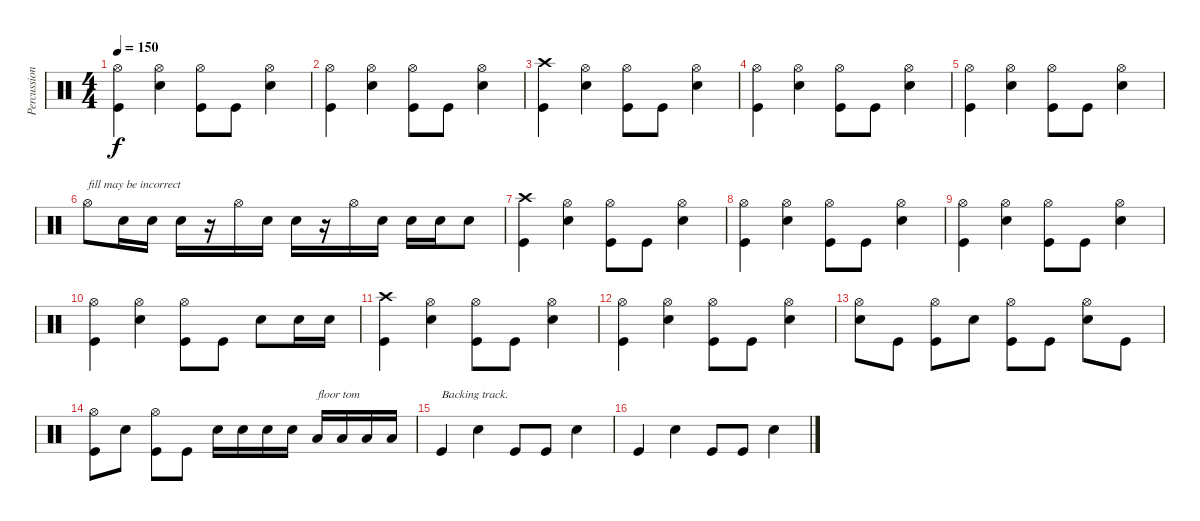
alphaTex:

\track ("Percussion" "Percussion") {instrument percussion}
\staff {score}
\articulation defaults
\ts (4 4)
\tempo 150
\clef neutral
\ks c
("Hi-Hat (open)" "Kick (hit)").4{dy f} ("Hi-Hat (open)" "Electric Snare (hit)").4 ("Hi-Hat (open)" "Kick (hit)").8 "Kick (hit)".8 ("Hi-Hat (open)" "Electric Snare (hit)").4 |
("Hi-Hat (open)" "Kick (hit)").4 ("Hi-Hat (open)" "Electric Snare (hit)").4 ("Hi-Hat (open)" "Kick (hit)").8 "Kick (hit)".8 ("Hi-Hat (open)" "Electric Snare (hit)").4 |
("Crash high (hit)" "Kick (hit)").4 ("Hi-Hat (open)" "Electric Snare (hit)").4 ("Hi-Hat (open)" "Kick (hit)").8 "Kick (hit)".8 ("Hi-Hat (open)" "Electric Snare (hit)").4 |
("Hi-Hat (open)" "Kick (hit)").4 ("Hi-Hat (open)" "Electric Snare (hit)").4 ("Hi-Hat (open)" "Kick (hit)").8 "Kick (hit)".8 ("Hi-Hat (open)" "Electric Snare (hit)").4 |
("Hi-Hat (open)" "Kick (hit)").4 ("Hi-Hat (open)" "Electric Snare (hit)").4 ("Hi-Hat (open)" "Kick (hit)").8 "Kick (hit)".8 ("Hi-Hat (open)" "Electric Snare (hit)").4 |
"Hi-Hat (open)".8{txt "fill may be incorrect"} "Electric Snare (hit)".16 "Electric Snare (hit)".16 "Electric Snare (hit)".16 r.16 "Hi-Hat (open)".16 "Electric Snare (hit)".16 "Electric Snare (hit)".16 r.16 "Hi-Hat (open)".16 "Electric Snare (hit)".16 "Electric Snare (hit)".16 "Electric Snare (hit)".16 "Electric Snare (hit)".8 |
("Crash high (hit)" "Kick (hit)").4 ("Hi-Hat (open)" "Electric Snare (hit)").4 ("Hi-Hat (open)" "Kick (hit)").8 "Kick (hit)".8 ("Hi-Hat (open)" "Electric Snare (hit)").4 |
("Hi-Hat (open)" "Kick (hit)").4 ("Hi-Hat (open)" "Electric Snare (hit)").4 ("Hi-Hat (open)" "Kick (hit)").8 "Kick (hit)".8 ("Hi-Hat (open)" "Electric Snare (hit)").4 |
("Hi-Hat (open)" "Kick (hit)").4 ("Hi-Hat (open)" "Electric Snare (hit)").4 ("Hi-Hat (open)" "Kick (hit)").8 "Kick (hit)".8 ("Hi-Hat (open)" "Electric Snare (hit)").4 |
("Hi-Hat (open)" "Kick (hit)").4 ("Hi-Hat (open)" "Electric Snare (hit)").4 ("Hi-Hat (open)" "Kick (hit)").8 "Kick (hit)".8 "Electric Snare (hit)".8 "Electric Snare (hit)".16 "Electric Snare (hit)".16 |
("Crash high (hit)" "Kick (hit)").4 ("Hi-Hat (open)" "Electric Snare (hit)").4 ("Hi-Hat (open)" "Kick (hit)").8 "Kick (hit)".8 ("Hi-Hat (open)" "Electric Snare (hit)").4 |
("Hi-Hat (open)" "Kick (hit)").4 ("Hi-Hat (open)" "Electric Snare (hit)").4 ("Hi-Hat (open)" "Kick (hit)").8 "Kick (hit)".8 ("Hi-Hat (open)" "Electric Snare (hit)").4 |
("Hi-Hat (open)" "Electric Snare (hit)").8 "Kick (hit)".8 ("Hi-Hat (open)" "Kick (hit)").8 "Electric Snare (hit)".8 ("Hi-Hat (open)" "Kick (hit)").8 "Kick (hit)".8 ("Hi-Hat (open)" "Electric Snare (hit)").8 "Kick (hit)".8 |
("Hi-Hat (open)" "Kick (hit)").8 "Electric Snare (hit)".8 ("Hi-Hat (open)" "Kick (hit)").8 "Kick (hit)".8 "Electric Snare (hit)".16 "Electric Snare (hit)".16 "Electric Snare (hit)".16 "Electric Snare (hit)".16 "Low Tom (hit)".16{txt "floor tom"} "Low Tom (hit)".16 "Low Tom (hit)".16 "Low Tom (hit)".16 |
"Kick (hit)".4{txt "Backing track."} "Electric Snare (hit)".4 "Kick (hit)".8 "Kick (hit)".8 "Electric Snare (hit)".4 |
"Kick (hit)".4 "Electric Snare (hit)".4 "Kick (hit)".8 "Kick (hit)".8 "Electric Snare (hit)".4
